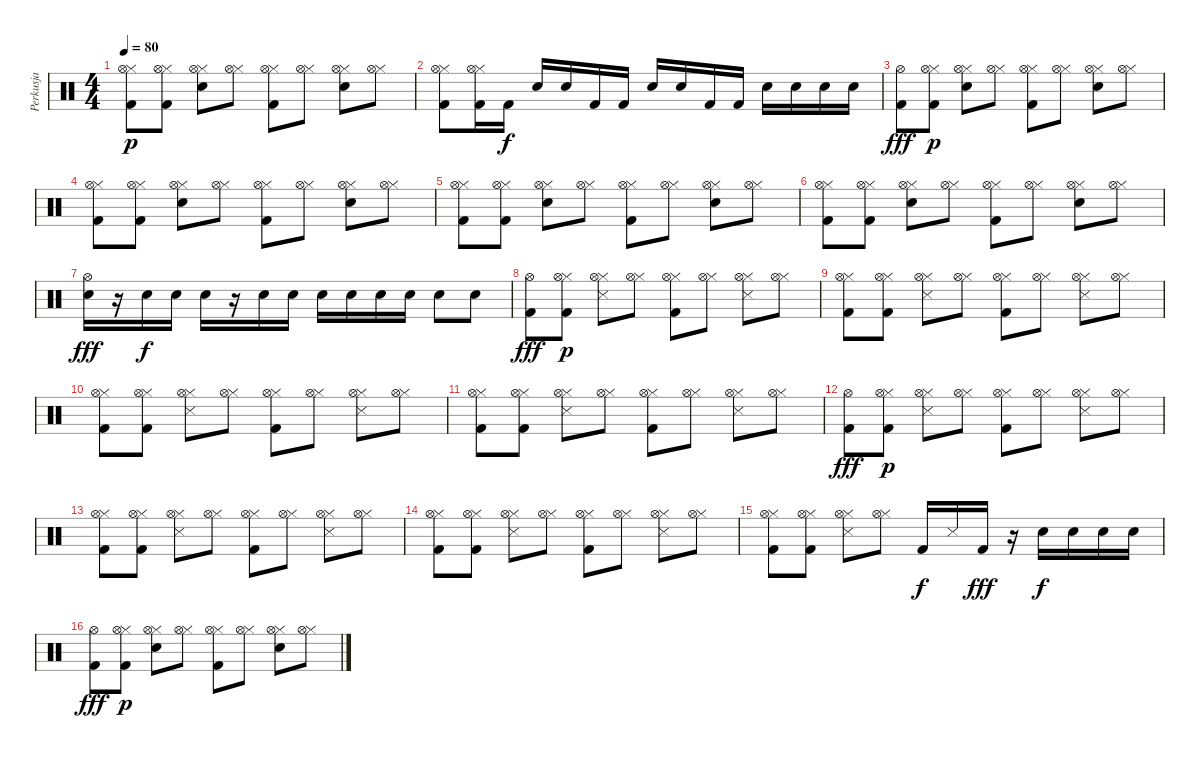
\track ("Perkusja" "Perkusja") {instrument percussion}
\staff {score}
\articulation defaults
\ts (4 4)
\tempo 80
\clef neutral
\ks c
("Kick (hit) 2" "Hi-Hat (closed)" "Hi-Hat (open)").8{dy p} ("Kick (hit) 2" "Hi-Hat (closed)" "Hi-Hat (open)").8 ("Electric Snare (hit)" "Hi-Hat (closed)" "Hi-Hat (open)").8 ("Hi-Hat (closed)" "Hi-Hat (open)").8 ("Kick (hit) 2" "Hi-Hat (closed)" "Hi-Hat (open)").8 ("Hi-Hat (closed)" "Hi-Hat (open)").8 ("Electric Snare (hit)" "Hi-Hat (closed)" "Hi-Hat (open)").8 ("Hi-Hat (closed)" "Hi-Hat (open)").8 |
("Kick (hit) 2" "Hi-Hat (closed)" "Hi-Hat (open)").8 ("Kick (hit) 2" "Hi-Hat (closed)" "Hi-Hat (open)").16 "Kick (hit) 2".16{dy f} "Electric Snare (hit)".16 "Electric Snare (hit)".16 "Kick (hit) 2".16 "Kick (hit) 2".16 "Electric Snare (hit)".16 "Electric Snare (hit)".16 "Kick (hit) 2".16 "Kick (hit) 2".16 "Electric Snare (hit)".16 "Electric Snare (hit)".16 "Electric Snare (hit)".16 "Electric Snare (hit)".16 |
("Kick (hit) 2" "Hi-Hat (open)").8{dy fff} ("Kick (hit) 2" "Hi-Hat (closed)" "Hi-Hat (open)").8{dy p} ("Electric Snare (hit)" "Hi-Hat (closed)" "Hi-Hat (open)").8 ("Hi-Hat (closed)" "Hi-Hat (open)").8 ("Kick (hit) 2" "Hi-Hat (closed)" "Hi-Hat (open)").8 ("Hi-Hat (closed)" "Hi-Hat (open)").8 ("Electric Snare (hit)" "Hi-Hat (closed)" "Hi-Hat (open)").8 ("Hi-Hat (closed)" "Hi-Hat (open)").8 |
("Kick (hit) 2" "Hi-Hat (closed)" "Hi-Hat (open)").8 ("Kick (hit) 2" "Hi-Hat (closed)" "Hi-Hat (open)").8 ("Electric Snare (hit)" "Hi-Hat (closed)" "Hi-Hat (open)").8 ("Hi-Hat (closed)" "Hi-Hat (open)").8 ("Kick (hit) 2" "Hi-Hat (closed)" "Hi-Hat (open)").8 ("Hi-Hat (closed)" "Hi-Hat (open)").8 ("Electric Snare (hit)" "Hi-Hat (closed)" "Hi-Hat (open)").8 ("Hi-Hat (closed)" "Hi-Hat (open)").8 |
("Kick (hit) 2" "Hi-Hat (closed)" "Hi-Hat (open)").8 ("Kick (hit) 2" "Hi-Hat (closed)" "Hi-Hat (open)").8 ("Electric Snare (hit)" "Hi-Hat (closed)" "Hi-Hat (open)").8 ("Hi-Hat (closed)" "Hi-Hat (open)").8 ("Kick (hit) 2" "Hi-Hat (closed)" "Hi-Hat (open)").8 ("Hi-Hat (closed)" "Hi-Hat (open)").8 ("Electric Snare (hit)" "Hi-Hat (closed)" "Hi-Hat (open)").8 ("Hi-Hat (closed)" "Hi-Hat (open)").8 |
("Kick (hit) 2" "Hi-Hat (closed)" "Hi-Hat (open)").8 ("Kick (hit) 2" "Hi-Hat (closed)" "Hi-Hat (open)").8 ("Electric Snare (hit)" "Hi-Hat (closed)" "Hi-Hat (open)").8 ("Hi-Hat (closed)" "Hi-Hat (open)").8 ("Kick (hit) 2" "Hi-Hat (closed)" "Hi-Hat (open)").8 ("Hi-Hat (closed)" "Hi-Hat (open)").8 ("Electric Snare (hit)" "Hi-Hat (closed)" "Hi-Hat (open)").8 ("Hi-Hat (closed)" "Hi-Hat (open)").8 |
("Electric Snare (hit)" "Hi-Hat (open)").16{dy fff} r.16 "Electric Snare (hit)".16{dy f} "Electric Snare (hit)".16 "Electric Snare (hit)".16 r.16 "Electric Snare (hit)".16 "Electric Snare (hit)".16 "Electric Snare (hit)".16 "Electric Snare (hit)".16 "Electric Snare (hit)".16 "Electric Snare (hit)".16 "Electric Snare (hit)".8 "Electric Snare (hit)".8 |
("Kick (hit) 2" "Hi-Hat (open)").8{dy fff} ("Kick (hit) 2" "Hi-Hat (closed)" "Hi-Hat (open)").8{dy p} ("Snare (side stick) 3" "Hi-Hat (closed)" "Hi-Hat (open)").8 ("Hi-Hat (closed)" "Hi-Hat (open)").8 ("Kick (hit) 2" "Hi-Hat (closed)" "Hi-Hat (open)").8 ("Hi-Hat (closed)" "Hi-Hat (open)").8 ("Snare (side stick) 3" "Hi-Hat (closed)" "Hi-Hat (open)").8 ("Hi-Hat (closed)" "Hi-Hat (open)").8 |
("Kick (hit) 2" "Hi-Hat (closed)" "Hi-Hat (open)").8 ("Kick (hit) 2" "Hi-Hat (closed)" "Hi-Hat (open)").8 ("Snare (side stick) 3" "Hi-Hat (closed)" "Hi-Hat (open)").8 ("Hi-Hat (closed)" "Hi-Hat (open)").8 ("Kick (hit) 2" "Hi-Hat (closed)" "Hi-Hat (open)").8 ("Hi-Hat (closed)" "Hi-Hat (open)").8 ("Snare (side stick) 3" "Hi-Hat (closed)" "Hi-Hat (open)").8 ("Hi-Hat (closed)" "Hi-Hat (open)").8 |
("Kick (hit) 2" "Hi-Hat (closed)" "Hi-Hat (open)").8 ("Kick (hit) 2" "Hi-Hat (closed)" "Hi-Hat (open)").8 ("Snare (side stick) 3" "Hi-Hat (closed)" "Hi-Hat (open)").8 ("Hi-Hat (closed)" "Hi-Hat (open)").8 ("Kick (hit) 2" "Hi-Hat (closed)" "Hi-Hat (open)").8 ("Hi-Hat (closed)" "Hi-Hat (open)").8 ("Snare (side stick) 3" "Hi-Hat (closed)" "Hi-Hat (open)").8 ("Hi-Hat (closed)" "Hi-Hat (open)").8 |
("Kick (hit) 2" "Hi-Hat (closed)" "Hi-Hat (open)").8 ("Kick (hit) 2" "Hi-Hat (closed)" "Hi-Hat (open)").8 ("Snare (side stick) 3" "Hi-Hat (closed)" "Hi-Hat (open)").8 ("Hi-Hat (closed)" "Hi-Hat (open)").8 ("Kick (hit) 2" "Hi-Hat (closed)" "Hi-Hat (open)").8 ("Hi-Hat (closed)" "Hi-Hat (open)").8 ("Snare (side stick) 3" "Hi-Hat (closed)" "Hi-Hat (open)").8 ("Hi-Hat (closed)" "Hi-Hat (open)").8 |
("Kick (hit) 2" "Hi-Hat (open)").8{dy fff} ("Kick (hit) 2" "Hi-Hat (closed)" "Hi-Hat (open)").8{dy p} ("Snare (side stick) 3" "Hi-Hat (closed)" "Hi-Hat (open)").8 ("Hi-Hat (closed)" "Hi-Hat (open)").8 ("Kick (hit) 2" "Hi-Hat (closed)" "Hi-Hat (open)").8 ("Hi-Hat (closed)" "Hi-Hat (open)").8 ("Snare (side stick) 3" "Hi-Hat (closed)" "Hi-Hat (open)").8 ("Hi-Hat (closed)" "Hi-Hat (open)").8 |
("Kick (hit) 2" "Hi-Hat (closed)" "Hi-Hat (open)").8 ("Kick (hit) 2" "Hi-Hat (closed)" "Hi-Hat (open)").8 ("Snare (side stick) 3" "Hi-Hat (closed)" "Hi-Hat (open)").8 ("Hi-Hat (closed)" "Hi-Hat (open)").8 ("Kick (hit) 2" "Hi-Hat (closed)" "Hi-Hat (open)").8 ("Hi-Hat (closed)" "Hi-Hat (open)").8 ("Snare (side stick) 3" "Hi-Hat (closed)" "Hi-Hat (open)").8 ("Hi-Hat (closed)" "Hi-Hat (open)").8 |
("Kick (hit) 2" "Hi-Hat (closed)" "Hi-Hat (open)").8 ("Kick (hit) 2" "Hi-Hat (closed)" "Hi-Hat (open)").8 ("Snare (side stick) 3" "Hi-Hat (closed)" "Hi-Hat (open)").8 ("Hi-Hat (closed)" "Hi-Hat (open)").8 ("Kick (hit) 2" "Hi-Hat (closed)" "Hi-Hat (open)").8 ("Hi-Hat (closed)" "Hi-Hat (open)").8 ("Snare (side stick) 3" "Hi-Hat (closed)" "Hi-Hat (open)").8 ("Hi-Hat (closed)" "Hi-Hat (open)").8 |
("Kick (hit) 2" "Hi-Hat (closed)" "Hi-Hat (open)").8 ("Kick (hit) 2" "Hi-Hat (closed)" "Hi-Hat (open)").8 ("Snare (side stick) 3" "Hi-Hat (closed)" "Hi-Hat (open)").8 ("Hi-Hat (closed)" "Hi-Hat (open)").8 "Kick (hit) 2".16{dy f} "Snare (side stick) 3".16 "Kick (hit) 2".16{dy fff} r.16 "Electric Snare (hit)".16{dy f} "Electric Snare (hit)".16 "Electric Snare (hit)".16 "Electric Snare (hit)".16 |
("Kick (hit) 2" "Hi-Hat (open)").8{dy fff} ("Kick (hit) 2" "Hi-Hat (closed)" "Hi-Hat (open)").8{dy p} ("Electric Snare (hit)" "Hi-Hat (closed)" "Hi-Hat (open)").8 ("Hi-Hat (closed)" "Hi-Hat (open)").8 ("Kick (hit) 2" "Hi-Hat (closed)" "Hi-Hat (open)").8 ("Hi-Hat (closed)" "Hi-Hat (open)").8 ("Electric Snare (hit)" "Hi-Hat (closed)" "Hi-Hat (open)").8 ("Hi-Hat (closed)" "Hi-Hat (open)").8
